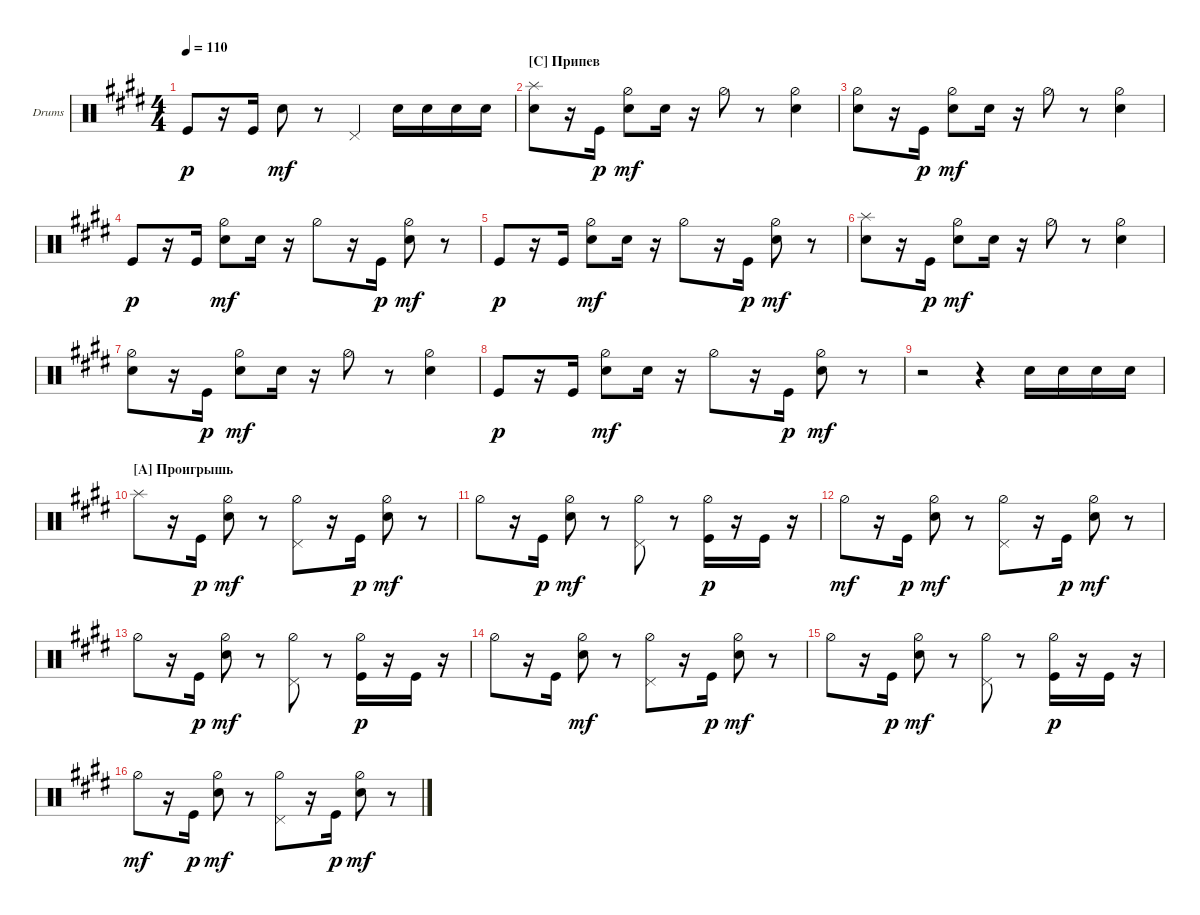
\defaultSystemsLayout 4
\bracketExtendMode groupsimilarinstruments
\firstSystemTrackNameOrientation horizontal
\otherSystemsTrackNameOrientation horizontal
\track ("Drumkit" "Drums") {instrument percussion}
\staff {score}
\articulation defaults
\ts (4 4)
\tempo 110
\clef neutral
\ks c#minor "Kick (hit)".8{dy p}
r.16 "Kick (hit)".16 "Snare (hit) 2".8{dy mf} r.8 "Pedal Hi-Hat (hit)".4 "Snare (hit) 2".16 "Snare (hit) 2".16 "Snare (hit) 2".16 "Snare (hit) 2".16 |
\section ("C" "Припев")
("Splash (hit)" "Snare (hit) 2").8 r.16 "Kick (hit)".16{dy p} ("Snare (hit) 2" "Hi-Hat (half)").8{dy mf} "Snare (hit) 2".16 r.16 "Hi-Hat (half)".8 r.8 ("Snare (hit) 2" "Hi-Hat (half)").4 |
("Snare (hit) 2" "Hi-Hat (half)").8 r.16 "Kick (hit)".16{dy p} ("Snare (hit) 2" "Hi-Hat (half)").8{dy mf} "Snare (hit) 2".16 r.16 "Hi-Hat (half)".8 r.8 ("Snare (hit) 2" "Hi-Hat (half)").4 |
"Kick (hit)".8{dy p} r.16 "Kick (hit)".16 ("Snare (hit) 2" "Hi-Hat (half)").8{dy mf} "Snare (hit) 2".16 r.16 "Hi-Hat (half)".8 r.16 "Kick (hit)".16{dy p} ("Snare (hit) 2" "Hi-Hat (half)").8{dy mf} r.8 |
"Kick (hit)".8{dy p} r.16 "Kick (hit)".16 ("Snare (hit) 2" "Hi-Hat (half)").8{dy mf} "Snare (hit) 2".16 r.16 "Hi-Hat (half)".8 r.16 "Kick (hit)".16{dy p} ("Snare (hit) 2" "Hi-Hat (half)").8{dy mf} r.8 |
("Splash (hit)" "Snare (hit) 2").8 r.16 "Kick (hit)".16{dy p} ("Snare (hit) 2" "Hi-Hat (half)").8{dy mf} "Snare (hit) 2".16 r.16 "Hi-Hat (half)".8 r.8 ("Snare (hit) 2" "Hi-Hat (half)").4 |
("Snare (hit) 2" "Hi-Hat (half)").8 r.16 "Kick (hit)".16{dy p} ("Snare (hit) 2" "Hi-Hat (half)").8{dy mf} "Snare (hit) 2".16 r.16 "Hi-Hat (half)".8 r.8 ("Snare (hit) 2" "Hi-Hat (half)").4 |
"Kick (hit)".8{dy p} r.16 "Kick (hit)".16 ("Snare (hit) 2" "Hi-Hat (half)").8{dy mf} "Snare (hit) 2".16 r.16 "Hi-Hat (half)".8 r.16 "Kick (hit)".16{dy p} ("Snare (hit) 2" "Hi-Hat (half)").8{dy mf} r.8 |
r.2 r.4 "Snare (hit) 2".16 "Snare (hit) 2".16 "Snare (hit) 2".16 "Snare (hit) 2".16 |
\section ("A" "Проигрышь")
"Splash (hit)".8 r.16 "Kick (hit)".16{dy p} ("Snare (hit) 2" "Hi-Hat (half)").8{dy mf} r.8 ("Pedal Hi-Hat (hit)" "Hi-Hat (half)").8 r.16 "Kick (hit)".16{dy p} ("Snare (hit) 2" "Hi-Hat (half)").8{dy mf} r.8 |
"Hi-Hat (half)".8 r.16 "Kick (hit)".16{dy p} ("Snare (hit) 2" "Hi-Hat (half)").8{dy mf} r.8 ("Pedal Hi-Hat (hit)" "Hi-Hat (half)").8 r.8 ("Kick (hit)" "Hi-Hat (half)").16{dy p} r.16 "Kick (hit)".16 r.16 |
"Hi-Hat (half)".8{dy mf} r.16 "Kick (hit)".16{dy p} ("Snare (hit) 2" "Hi-Hat (half)").8{dy mf} r.8 ("Pedal Hi-Hat (hit)" "Hi-Hat (half)").8 r.16 "Kick (hit)".16{dy p} ("Snare (hit) 2" "Hi-Hat (half)").8{dy mf} r.8 |
"Hi-Hat (half)".8 r.16 "Kick (hit)".16{dy p} ("Snare (hit) 2" "Hi-Hat (half)").8{dy mf} r.8 ("Pedal Hi-Hat (hit)" "Hi-Hat (half)").8 r.8 ("Kick (hit)" "Hi-Hat (half)").16{dy p} r.16 "Kick (hit)".16 r.16 |
"Hi-Hat (half)".8 r.16 "Kick (hit)".16 ("Snare (hit) 2" "Hi-Hat (half)").8{dy mf} r.8 ("Pedal Hi-Hat (hit)" "Hi-Hat (half)").8 r.16 "Kick (hit)".16{dy p} ("Snare (hit) 2" "Hi-Hat (half)").8{dy mf} r.8 |
"Hi-Hat (half)".8 r.16 "Kick (hit)".16{dy p} ("Snare (hit) 2" "Hi-Hat (half)").8{dy mf} r.8 ("Pedal Hi-Hat (hit)" "Hi-Hat (half)").8 r.8 ("Kick (hit)" "Hi-Hat (half)").16{dy p} r.16 "Kick (hit)".16 r.16 |
"Hi-Hat (half)".8{dy mf} r.16 "Kick (hit)".16{dy p} ("Snare (hit) 2" "Hi-Hat (half)").8{dy mf} r.8 ("Pedal Hi-Hat (hit)" "Hi-Hat (half)").8 r.16 "Kick (hit)".16{dy p} ("Snare (hit) 2" "Hi-Hat (half)").8{dy mf} r.8
